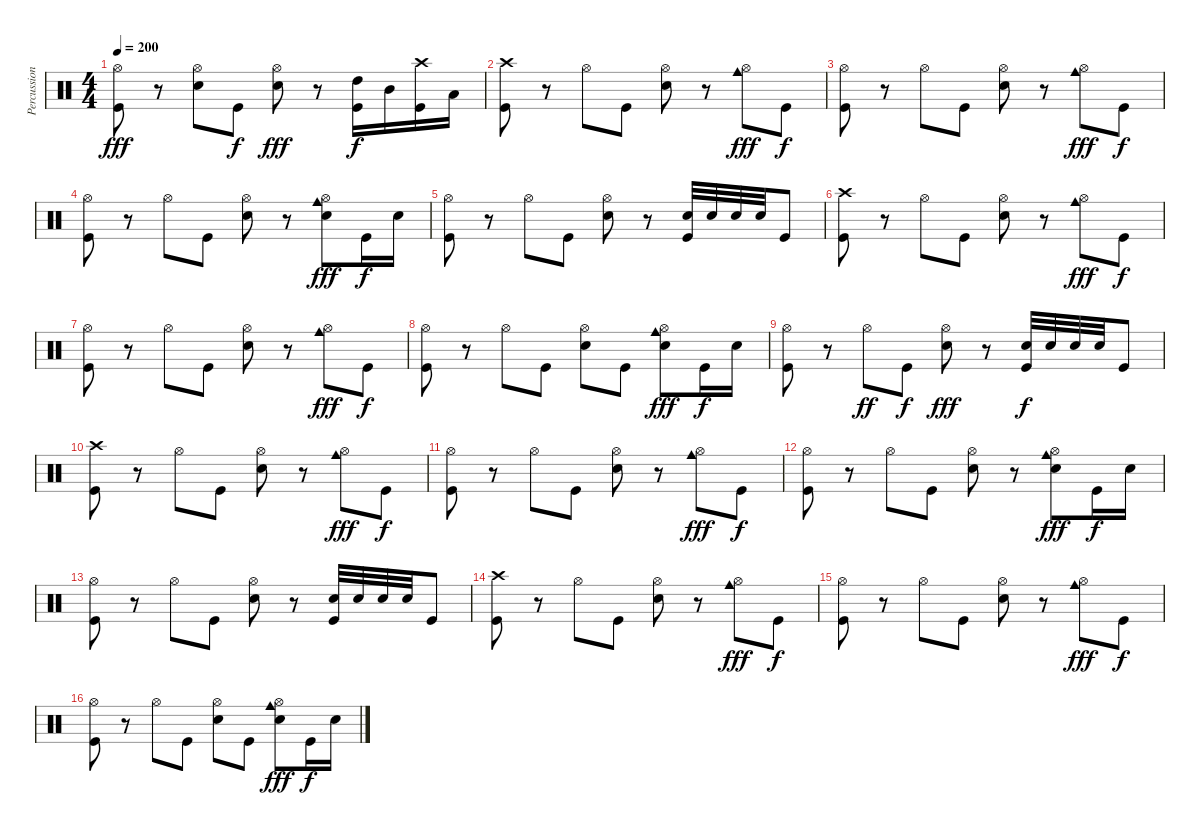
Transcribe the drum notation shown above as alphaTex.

\track ("Percussion" "Percussion") {instrument percussion}
\staff {score}
\articulation defaults
\ts (4 4)
\tempo 200
\clef neutral
\ks c
("Hi-Hat (open)" "Kick (hit)").8{dy fff} r.8 ("Hi-Hat (open)" "Electric Snare (hit)").8 "Kick (hit)".8{dy f} ("Hi-Hat (open)" "Electric Snare (hit)").8{dy fff} r.8 ("High Tom (hit)" "Kick (hit)").16{dy f} "Mid Tom (hit)".16 ("Crash high (hit)" "Kick (hit)").16 "Low Floor Tom (hit)".16 |
("Crash high (hit)" "Kick (hit)").8 r.8 "Hi-Hat (open)".8 "Kick (hit)".8 ("Hi-Hat (open)" "Electric Snare (hit)").8 r.8 ("Hi-Hat (open)" "Cowbell medium (hit)").8{dy fff} "Kick (hit)".8{dy f} |
("Hi-Hat (open)" "Kick (hit)").8 r.8 "Hi-Hat (open)".8 "Kick (hit)".8 ("Hi-Hat (open)" "Electric Snare (hit)").8 r.8 ("Hi-Hat (open)" "Cowbell medium (hit)").8{dy fff} "Kick (hit)".8{dy f} |
("Hi-Hat (open)" "Kick (hit)").8 r.8 "Hi-Hat (open)".8 "Kick (hit)".8 ("Hi-Hat (open)" "Electric Snare (hit)").8 r.8 ("Hi-Hat (open)" "Cowbell medium (hit)" "Electric Snare (hit)").8{dy fff} "Kick (hit)".16{dy f} "Electric Snare (hit)".16 |
("Hi-Hat (open)" "Kick (hit)").8 r.8 "Hi-Hat (open)".8 "Kick (hit)".8 ("Hi-Hat (open)" "Electric Snare (hit)").8 r.8 ("Electric Snare (hit)" "Kick (hit)").32 "Electric Snare (hit)".32 "Electric Snare (hit)".32 "Electric Snare (hit)".32 "Kick (hit)".8 |
("Crash high (hit)" "Kick (hit)").8 r.8 "Hi-Hat (open)".8 "Kick (hit)".8 ("Hi-Hat (open)" "Electric Snare (hit)").8 r.8 ("Hi-Hat (open)" "Cowbell medium (hit)").8{dy fff} "Kick (hit)".8{dy f} |
("Hi-Hat (open)" "Kick (hit)").8 r.8 "Hi-Hat (open)".8 "Kick (hit)".8 ("Hi-Hat (open)" "Electric Snare (hit)").8 r.8 ("Hi-Hat (open)" "Cowbell medium (hit)").8{dy fff} "Kick (hit)".8{dy f} |
("Hi-Hat (open)" "Kick (hit)").8 r.8 "Hi-Hat (open)".8 "Kick (hit)".8 ("Hi-Hat (open)" "Electric Snare (hit)").8 "Kick (hit)".8 ("Hi-Hat (open)" "Cowbell medium (hit)" "Electric Snare (hit)").8{dy fff} "Kick (hit)".16{dy f} "Electric Snare (hit)".16 |
("Hi-Hat (open)" "Kick (hit)").8 r.8 "Hi-Hat (open)".8{dy ff} "Kick (hit)".8{dy f} ("Hi-Hat (open)" "Electric Snare (hit)").8{dy fff} r.8 ("Electric Snare (hit)" "Kick (hit)").32{dy f} "Electric Snare (hit)".32 "Electric Snare (hit)".32 "Electric Snare (hit)".32 "Kick (hit)".8 |
("Crash high (hit)" "Kick (hit)").8 r.8 "Hi-Hat (open)".8 "Kick (hit)".8 ("Hi-Hat (open)" "Electric Snare (hit)").8 r.8 ("Hi-Hat (open)" "Cowbell medium (hit)").8{dy fff} "Kick (hit)".8{dy f} |
("Hi-Hat (open)" "Kick (hit)").8 r.8 "Hi-Hat (open)".8 "Kick (hit)".8 ("Hi-Hat (open)" "Electric Snare (hit)").8 r.8 ("Hi-Hat (open)" "Cowbell medium (hit)").8{dy fff} "Kick (hit)".8{dy f} |
("Hi-Hat (open)" "Kick (hit)").8 r.8 "Hi-Hat (open)".8 "Kick (hit)".8 ("Hi-Hat (open)" "Electric Snare (hit)").8 r.8 ("Hi-Hat (open)" "Cowbell medium (hit)" "Electric Snare (hit)").8{dy fff} "Kick (hit)".16{dy f} "Electric Snare (hit)".16 |
("Hi-Hat (open)" "Kick (hit)").8 r.8 "Hi-Hat (open)".8 "Kick (hit)".8 ("Hi-Hat (open)" "Electric Snare (hit)").8 r.8 ("Electric Snare (hit)" "Kick (hit)").32 "Electric Snare (hit)".32 "Electric Snare (hit)".32 "Electric Snare (hit)".32 "Kick (hit)".8 |
("Crash high (hit)" "Kick (hit)").8 r.8 "Hi-Hat (open)".8 "Kick (hit)".8 ("Hi-Hat (open)" "Electric Snare (hit)").8 r.8 ("Hi-Hat (open)" "Cowbell medium (hit)").8{dy fff} "Kick (hit)".8{dy f} |
("Hi-Hat (open)" "Kick (hit)").8 r.8 "Hi-Hat (open)".8 "Kick (hit)".8 ("Hi-Hat (open)" "Electric Snare (hit)").8 r.8 ("Hi-Hat (open)" "Cowbell medium (hit)").8{dy fff} "Kick (hit)".8{dy f} |
("Hi-Hat (open)" "Kick (hit)").8 r.8 "Hi-Hat (open)".8 "Kick (hit)".8 ("Hi-Hat (open)" "Electric Snare (hit)").8 "Kick (hit)".8 ("Hi-Hat (open)" "Cowbell medium (hit)" "Electric Snare (hit)").8{dy fff} "Kick (hit)".16{dy f} "Electric Snare (hit)".16
